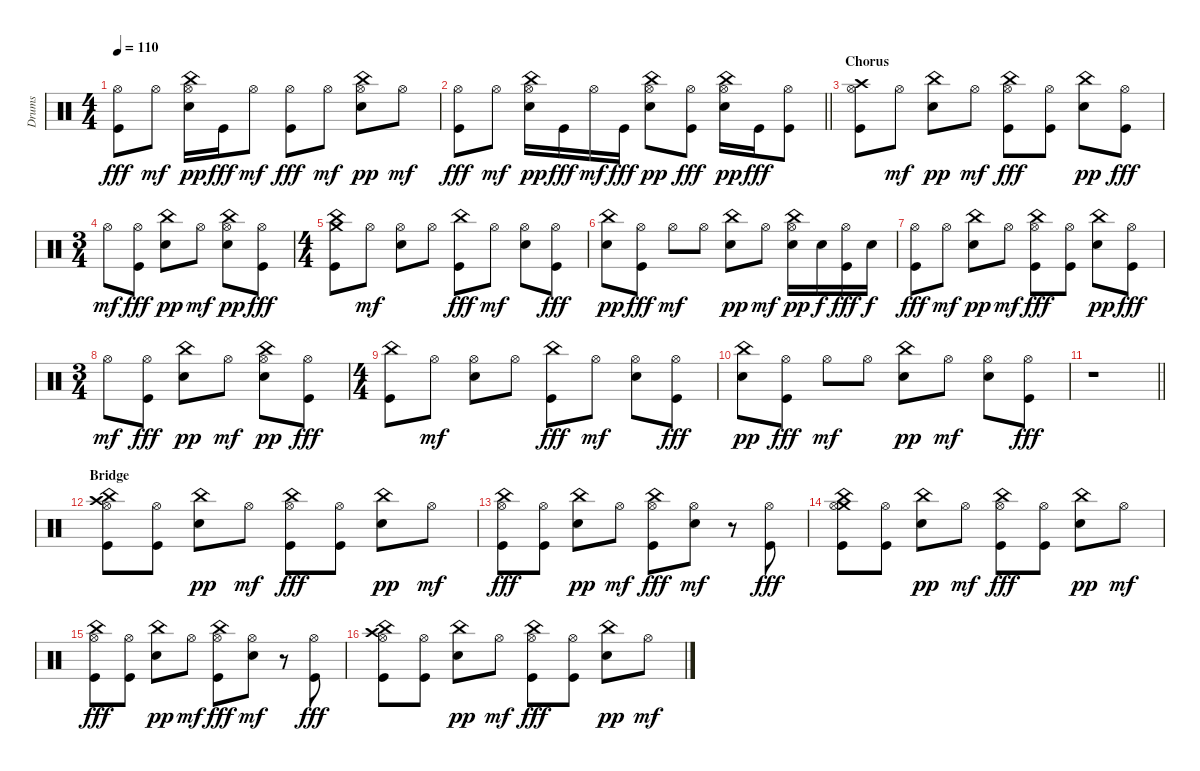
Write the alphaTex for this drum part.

\track ("Drums" "Drums") {instrument percussion}
\staff {score}
\articulation defaults
\ts (4 4)
\tempo 110
\clef neutral
\ks c
("Hi-Hat (open)" "Kick (hit)").8{dy fff} "Hi-Hat (open)".8{dy mf} ("Hi-Hat (open)" "China (hit)" "Electric Snare (hit)").16{dy pp} "Kick (hit)".16{dy fff} "Hi-Hat (open)".8{dy mf} ("Hi-Hat (open)" "Kick (hit)").8{dy fff} "Hi-Hat (open)".8{dy mf} ("Hi-Hat (open)" "China (hit)" "Electric Snare (hit)").8{dy pp} "Hi-Hat (open)".8{dy mf} |
\barLineRight lightlight
("Hi-Hat (open)" "Kick (hit)").8{dy fff} "Hi-Hat (open)".8{dy mf} ("Hi-Hat (open)" "China (hit)" "Electric Snare (hit)").16{dy pp} "Kick (hit)".16{dy fff} "Hi-Hat (open)".16{dy mf} "Kick (hit)".16{dy fff} ("Hi-Hat (open)" "China (hit)" "Electric Snare (hit)").8{dy pp} ("Hi-Hat (open)" "Kick (hit)").8{dy fff} ("Hi-Hat (open)" "China (hit)" "Electric Snare (hit)").16{dy pp} "Kick (hit)".16{dy fff} ("Hi-Hat (open)" "Kick (hit)").8 |
\section ("" "Chorus")
("Crash high (hit)" "Hi-Hat (open)" "Kick (hit)").8 "Hi-Hat (open)".8{dy mf} ("China (hit)" "Electric Snare (hit)").8{dy pp} "Hi-Hat (open)".8{dy mf} ("Hi-Hat (open)" "China (hit)" "Kick (hit)").8{dy fff} ("Hi-Hat (open)" "Kick (hit)").8 ("China (hit)" "Electric Snare (hit)").8{dy pp} ("Hi-Hat (open)" "Kick (hit)").8{dy fff} |
\ts (3 4)
"Hi-Hat (open)".8{dy mf} ("Hi-Hat (open)" "Kick (hit)").8{dy fff} ("China (hit)" "Electric Snare (hit)").8{dy pp} "Hi-Hat (open)".8{dy mf} ("Hi-Hat (open)" "China (hit)" "Electric Snare (hit)").8{dy pp} ("Hi-Hat (open)" "Kick (hit)").8{dy fff} |
\ts (4 4)
("Crash medium (hit)" "China (hit)" "Kick (hit)").8 "Hi-Hat (open)".8{dy mf} ("Hi-Hat (open)" "Electric Snare (hit)").8 "Hi-Hat (open)".8 ("China (hit)" "Kick (hit)").8{dy fff} "Hi-Hat (open)".8{dy mf} ("Hi-Hat (open)" "Electric Snare (hit)").8 ("Hi-Hat (open)" "Kick (hit)").8{dy fff} |
("China (hit)" "Electric Snare (hit)").8{dy pp} ("Hi-Hat (open)" "Kick (hit)").8{dy fff} "Hi-Hat (open)".8{dy mf} "Hi-Hat (open)".8 ("China (hit)" "Electric Snare (hit)").8{dy pp} "Hi-Hat (open)".8{dy mf} ("Hi-Hat (open)" "China (hit)" "Electric Snare (hit)").16{dy pp} "Electric Snare (hit)".16{dy f} ("Hi-Hat (open)" "Kick (hit)").16{dy fff} "Electric Snare (hit)".16{dy f} |
("Hi-Hat (open)" "Kick (hit)").8{dy fff} "Hi-Hat (open)".8{dy mf} ("China (hit)" "Electric Snare (hit)").8{dy pp} "Hi-Hat (open)".8{dy mf} ("Hi-Hat (open)" "China (hit)" "Kick (hit)").8{dy fff} ("Hi-Hat (open)" "Kick (hit)").8 ("China (hit)" "Electric Snare (hit)").8{dy pp} ("Hi-Hat (open)" "Kick (hit)").8{dy fff} |
\ts (3 4)
"Hi-Hat (open)".8{dy mf} ("Hi-Hat (open)" "Kick (hit)").8{dy fff} ("China (hit)" "Electric Snare (hit)").8{dy pp} "Hi-Hat (open)".8{dy mf} ("Hi-Hat (open)" "China (hit)" "Electric Snare (hit)").8{dy pp} ("Hi-Hat (open)" "Kick (hit)").8{dy fff} |
\ts (4 4)
("China (hit)" "Kick (hit)").8 "Hi-Hat (open)".8{dy mf} ("Hi-Hat (open)" "Electric Snare (hit)").8 "Hi-Hat (open)".8 ("China (hit)" "Kick (hit)").8{dy fff} "Hi-Hat (open)".8{dy mf} ("Hi-Hat (open)" "Electric Snare (hit)").8 ("Hi-Hat (open)" "Kick (hit)").8{dy fff} |
("China (hit)" "Electric Snare (hit)").8{dy pp} ("Hi-Hat (open)" "Kick (hit)").8{dy fff} "Hi-Hat (open)".8{dy mf} "Hi-Hat (open)".8 ("China (hit)" "Electric Snare (hit)").8{dy pp} "Hi-Hat (open)".8{dy mf} ("Hi-Hat (open)" "Electric Snare (hit)").8 ("Hi-Hat (open)" "Kick (hit)").8{dy fff} |
\barLineRight lightlight
r.1 |
\section ("" "Bridge")
("Crash high (hit)" "Hi-Hat (open)" "China (hit)" "Kick (hit)").8 ("Hi-Hat (open)" "Kick (hit)").8 ("China (hit)" "Electric Snare (hit)").8{dy pp} "Hi-Hat (open)".8{dy mf} ("Hi-Hat (open)" "China (hit)" "Kick (hit)").8{dy fff} ("Hi-Hat (open)" "Kick (hit)").8 ("China (hit)" "Electric Snare (hit)").8{dy pp} "Hi-Hat (open)".8{dy mf} |
("Hi-Hat (open)" "China (hit)" "Kick (hit)").8{dy fff} ("Hi-Hat (open)" "Kick (hit)").8 ("China (hit)" "Electric Snare (hit)").8{dy pp} "Hi-Hat (open)".8{dy mf} ("Hi-Hat (open)" "China (hit)" "Kick (hit)").8{dy fff} ("Hi-Hat (open)" "Electric Snare (hit)").8{dy mf} r.8 ("Hi-Hat (open)" "Kick (hit)").8{dy fff} |
("Crash medium (hit)" "Hi-Hat (open)" "China (hit)" "Kick (hit)").8 ("Hi-Hat (open)" "Kick (hit)").8 ("China (hit)" "Electric Snare (hit)").8{dy pp} "Hi-Hat (open)".8{dy mf} ("Hi-Hat (open)" "China (hit)" "Kick (hit)").8{dy fff} ("Hi-Hat (open)" "Kick (hit)").8 ("China (hit)" "Electric Snare (hit)").8{dy pp} "Hi-Hat (open)".8{dy mf} |
("Hi-Hat (open)" "China (hit)" "Kick (hit)").8{dy fff} ("Hi-Hat (open)" "Kick (hit)").8 ("China (hit)" "Electric Snare (hit)").8{dy pp} "Hi-Hat (open)".8{dy mf} ("Hi-Hat (open)" "China (hit)" "Kick (hit)").8{dy fff} ("Hi-Hat (open)" "Electric Snare (hit)").8{dy mf} r.8 ("Hi-Hat (open)" "Kick (hit)").8{dy fff} |
("Crash high (hit)" "Hi-Hat (open)" "China (hit)" "Kick (hit)").8 ("Hi-Hat (open)" "Kick (hit)").8 ("China (hit)" "Electric Snare (hit)").8{dy pp} "Hi-Hat (open)".8{dy mf} ("Hi-Hat (open)" "China (hit)" "Kick (hit)").8{dy fff} ("Hi-Hat (open)" "Kick (hit)").8 ("China (hit)" "Electric Snare (hit)").8{dy pp} "Hi-Hat (open)".8{dy mf}
